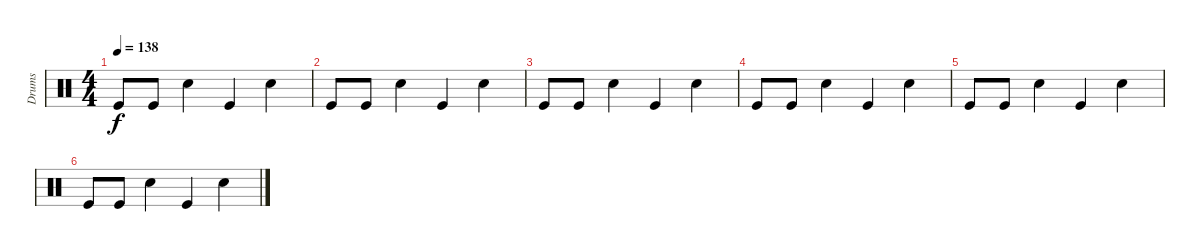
\track ("Drums" "Drums") {instrument percussion}
\staff {score}
\articulation defaults
\ts (4 4)
\tempo 138
\clef neutral
\ks c "Kick (hit)".8{dy f volume 6} "Kick (hit)".8 "Snare (hit) 2".4 "Kick (hit)".4 "Snare (hit) 2".4
|
"Kick (hit)".8{volume 5} "Kick (hit)".8 "Snare (hit) 2".4 "Kick (hit)".4 "Snare (hit) 2".4 |
"Kick (hit)".8 "Kick (hit)".8 "Snare (hit) 2".4 "Kick (hit)".4 "Snare (hit) 2".4 |
"Kick (hit)".8{volume 3} "Kick (hit)".8 "Snare (hit) 2".4 "Kick (hit)".4 "Snare (hit) 2".4 |
"Kick (hit)".8{volume 2} "Kick (hit)".8 "Snare (hit) 2".4 "Kick (hit)".4 "Snare (hit) 2".4 |
"Kick (hit)".8 "Kick (hit)".8 "Snare (hit) 2".4 "Kick (hit)".4 "Snare (hit) 2".4
